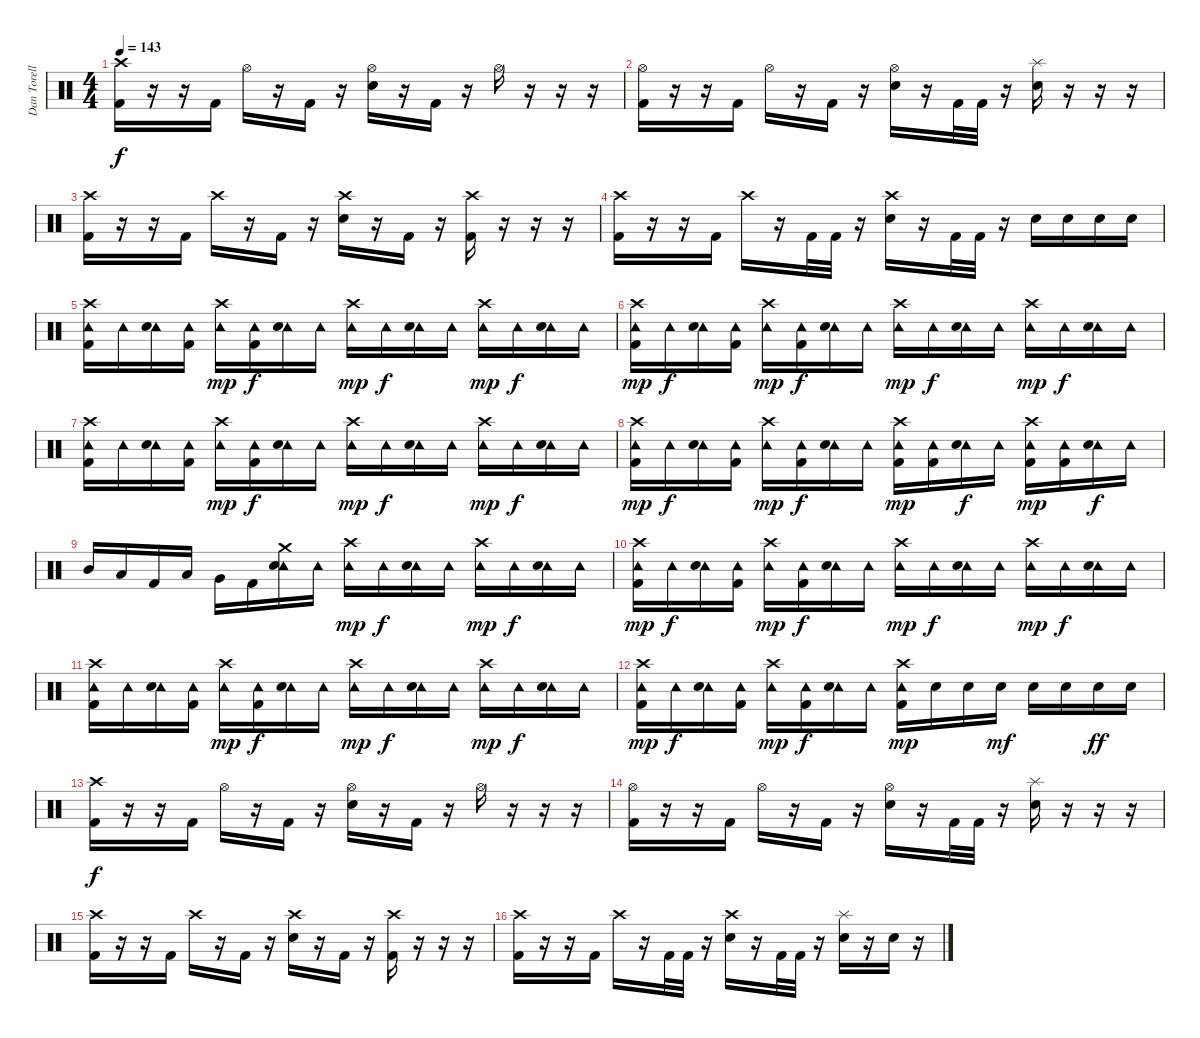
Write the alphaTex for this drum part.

\track ("Dan Torelli" "Dan Torell") {instrument percussion}
\staff {score}
\articulation defaults
\ts (4 4)
\tempo 143
\clef neutral
\ks c
("Crash high (hit)" "Kick (hit) 2").16{dy f} r.16 r.16 "Kick (hit) 2".16 "Hi-Hat (open)".16 r.16 "Kick (hit) 2".16 r.16 ("Hi-Hat (open)" "Snare (hit) 2").16 r.16 "Kick (hit) 2".16 r.16 "Hi-Hat (open)".16 r.16 r.16 r.16 |
("Hi-Hat (open)" "Kick (hit) 2").16 r.16 r.16 "Kick (hit) 2".16 "Hi-Hat (open)".16 r.16 "Kick (hit) 2".16 r.16 ("Hi-Hat (open)" "Snare (hit) 2").16 r.16 "Kick (hit) 2".32 "Kick (hit) 2".32 r.16 ("Splash (hit)" "Snare (hit) 2").16 r.16 r.16 r.16 |
("Crash high (hit)" "Kick (hit) 2").16 r.16 r.16 "Kick (hit) 2".16 "Crash high (hit)".16 r.16 "Kick (hit) 2".16 r.16 ("Crash high (hit)" "Snare (hit) 2").16 r.16 "Kick (hit) 2".16 r.16 ("Crash high (hit)" "Kick (hit) 2").16 r.16 r.16 r.16 |
("Crash high (hit)" "Kick (hit) 2").16 r.16 r.16 "Kick (hit) 2".16 "Crash high (hit)".16 r.16 "Kick (hit) 2".32 "Kick (hit) 2".32 r.16 ("Crash high (hit)" "Snare (hit) 2").16 r.16 "Kick (hit) 2".32 "Kick (hit) 2".32 r.16 "Snare (hit) 2".16 "Snare (hit) 2".16 "Snare (hit) 2".16 "Snare (hit) 2".16 |
("Crash high (hit)" "Tambourine (hit)" "Kick (hit) 2").16 "Tambourine (hit)".16 ("Tambourine (hit)" "Snare (hit) 2").16 ("Tambourine (hit)" "Kick (hit) 2").16 ("Crash high (hit)" "Tambourine (hit)").16{dy mp} ("Tambourine (hit)" "Kick (hit) 2").16{dy f} ("Tambourine (hit)" "Snare (hit) 2").16 "Tambourine (hit)".16 ("Crash high (hit)" "Tambourine (hit)").16{dy mp} "Tambourine (hit)".16{dy f} ("Tambourine (hit)" "Snare (hit) 2").16 "Tambourine (hit)".16 ("Crash high (hit)" "Tambourine (hit)").16{dy mp} "Tambourine (hit)".16{dy f} ("Tambourine (hit)" "Snare (hit) 2").16 "Tambourine (hit)".16 |
("Crash high (hit)" "Tambourine (hit)" "Kick (hit) 2").16{dy mp} "Tambourine (hit)".16{dy f} ("Tambourine (hit)" "Snare (hit) 2").16 ("Tambourine (hit)" "Kick (hit) 2").16 ("Crash high (hit)" "Tambourine (hit)").16{dy mp} ("Tambourine (hit)" "Kick (hit) 2").16{dy f} ("Tambourine (hit)" "Snare (hit) 2").16 "Tambourine (hit)".16 ("Crash high (hit)" "Tambourine (hit)").16{dy mp} "Tambourine (hit)".16{dy f} ("Tambourine (hit)" "Snare (hit) 2").16 "Tambourine (hit)".16 ("Crash high (hit)" "Tambourine (hit)").16{dy mp} "Tambourine (hit)".16{dy f} ("Tambourine (hit)" "Snare (hit) 2").16 "Tambourine (hit)".16 |
("Crash high (hit)" "Tambourine (hit)" "Kick (hit) 2").16 "Tambourine (hit)".16 ("Tambourine (hit)" "Snare (hit) 2").16 ("Tambourine (hit)" "Kick (hit) 2").16 ("Crash high (hit)" "Tambourine (hit)").16{dy mp} ("Tambourine (hit)" "Kick (hit) 2").16{dy f} ("Tambourine (hit)" "Snare (hit) 2").16 "Tambourine (hit)".16 ("Crash high (hit)" "Tambourine (hit)").16{dy mp} "Tambourine (hit)".16{dy f} ("Tambourine (hit)" "Snare (hit) 2").16 "Tambourine (hit)".16 ("Crash high (hit)" "Tambourine (hit)").16{dy mp} "Tambourine (hit)".16{dy f} ("Tambourine (hit)" "Snare (hit) 2").16 "Tambourine (hit)".16 |
("Crash high (hit)" "Tambourine (hit)" "Kick (hit) 2").16{dy mp} "Tambourine (hit)".16{dy f} ("Tambourine (hit)" "Snare (hit) 2").16 ("Tambourine (hit)" "Kick (hit) 2").16 ("Crash high (hit)" "Tambourine (hit)").16{dy mp} ("Tambourine (hit)" "Kick (hit) 2").16{dy f} ("Tambourine (hit)" "Snare (hit) 2").16 "Tambourine (hit)".16 ("Crash high (hit)" "Tambourine (hit)" "Kick (hit) 2").16{dy mp} ("Tambourine (hit)" "Kick (hit) 2").16 ("Tambourine (hit)" "Snare (hit) 2").16{dy f} "Tambourine (hit)".16 ("Crash high (hit)" "Tambourine (hit)" "Kick (hit) 2").16{dy mp} ("Tambourine (hit)" "Kick (hit) 2").16 ("Tambourine (hit)" "Snare (hit) 2").16{dy f} "Tambourine (hit)".16 |
"Mid Tom (hit)".16 "Low Tom (hit)".16 "Kick (hit) 2".16 "Low Tom (hit)".16 "Very Low Tom (hit)".16 "Kick (hit) 2".16 ("Crash medium (hit)" "Tambourine (hit)" "Snare (hit) 2").16 "Tambourine (hit)".16 ("Crash high (hit)" "Tambourine (hit)").16{dy mp} "Tambourine (hit)".16{dy f} ("Tambourine (hit)" "Snare (hit) 2").16 "Tambourine (hit)".16 ("Crash high (hit)" "Tambourine (hit)").16{dy mp} "Tambourine (hit)".16{dy f} ("Tambourine (hit)" "Snare (hit) 2").16 "Tambourine (hit)".16 |
("Crash high (hit)" "Tambourine (hit)" "Kick (hit) 2").16{dy mp} "Tambourine (hit)".16{dy f} ("Tambourine (hit)" "Snare (hit) 2").16 ("Tambourine (hit)" "Kick (hit) 2").16 ("Crash high (hit)" "Tambourine (hit)").16{dy mp} ("Tambourine (hit)" "Kick (hit) 2").16{dy f} ("Tambourine (hit)" "Snare (hit) 2").16 "Tambourine (hit)".16 ("Crash high (hit)" "Tambourine (hit)").16{dy mp} "Tambourine (hit)".16{dy f} ("Tambourine (hit)" "Snare (hit) 2").16 "Tambourine (hit)".16 ("Crash high (hit)" "Tambourine (hit)").16{dy mp} "Tambourine (hit)".16{dy f} ("Tambourine (hit)" "Snare (hit) 2").16 "Tambourine (hit)".16 |
("Crash high (hit)" "Tambourine (hit)" "Kick (hit) 2").16 "Tambourine (hit)".16 ("Tambourine (hit)" "Snare (hit) 2").16 ("Tambourine (hit)" "Kick (hit) 2").16 ("Crash high (hit)" "Tambourine (hit)").16{dy mp} ("Tambourine (hit)" "Kick (hit) 2").16{dy f} ("Tambourine (hit)" "Snare (hit) 2").16 "Tambourine (hit)".16 ("Crash high (hit)" "Tambourine (hit)").16{dy mp} "Tambourine (hit)".16{dy f} ("Tambourine (hit)" "Snare (hit) 2").16 "Tambourine (hit)".16 ("Crash high (hit)" "Tambourine (hit)").16{dy mp} "Tambourine (hit)".16{dy f} ("Tambourine (hit)" "Snare (hit) 2").16 "Tambourine (hit)".16 |
("Crash high (hit)" "Tambourine (hit)" "Kick (hit) 2").16{dy mp} "Tambourine (hit)".16{dy f} ("Tambourine (hit)" "Snare (hit) 2").16 ("Tambourine (hit)" "Kick (hit) 2").16 ("Crash high (hit)" "Tambourine (hit)").16{dy mp} ("Tambourine (hit)" "Kick (hit) 2").16{dy f} ("Tambourine (hit)" "Snare (hit) 2").16 "Tambourine (hit)".16 ("Crash high (hit)" "Tambourine (hit)" "Kick (hit) 2").16{dy mp} "Snare (hit) 2".16 "Snare (hit) 2".16 "Snare (hit) 2".16{dy mf} "Snare (hit) 2".16 "Snare (hit) 2".16 "Snare (hit) 2".16{dy ff} "Snare (hit) 2".16 |
("Crash high (hit)" "Kick (hit) 2").16{dy f} r.16 r.16 "Kick (hit) 2".16 "Hi-Hat (open)".16 r.16 "Kick (hit) 2".16 r.16 ("Hi-Hat (open)" "Snare (hit) 2").16 r.16 "Kick (hit) 2".16 r.16 "Hi-Hat (open)".16 r.16 r.16 r.16 |
("Hi-Hat (open)" "Kick (hit) 2").16 r.16 r.16 "Kick (hit) 2".16 "Hi-Hat (open)".16 r.16 "Kick (hit) 2".16 r.16 ("Hi-Hat (open)" "Snare (hit) 2").16 r.16 "Kick (hit) 2".32 "Kick (hit) 2".32 r.16 ("Splash (hit)" "Snare (hit) 2").16 r.16 r.16 r.16 |
("Crash high (hit)" "Kick (hit) 2").16 r.16 r.16 "Kick (hit) 2".16 "Crash high (hit)".16 r.16 "Kick (hit) 2".16 r.16 ("Crash high (hit)" "Snare (hit) 2").16 r.16 "Kick (hit) 2".16 r.16 ("Crash high (hit)" "Kick (hit) 2").16 r.16 r.16 r.16 |
("Crash high (hit)" "Kick (hit) 2").16 r.16 r.16 "Kick (hit) 2".16 "Crash high (hit)".16 r.16 "Kick (hit) 2".32 "Kick (hit) 2".32 r.16 ("Crash high (hit)" "Snare (hit) 2").16 r.16 "Kick (hit) 2".32 "Kick (hit) 2".32 r.16 ("Splash (hit)" "Snare (hit) 2").16 r.16 "Snare (hit) 2".16 r.16
